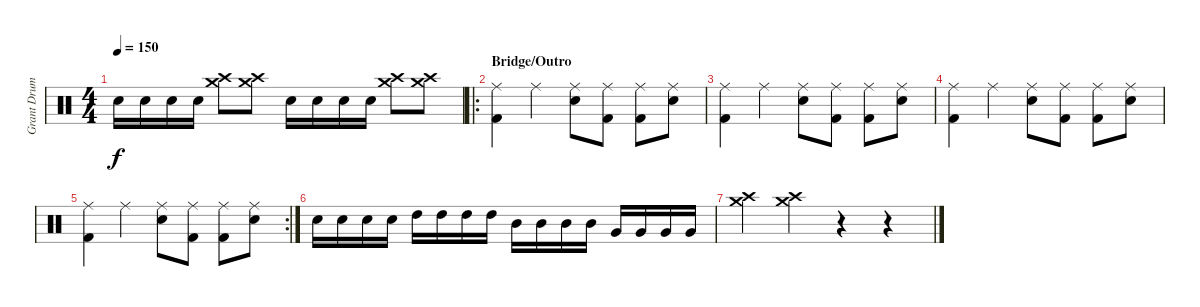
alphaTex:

\track ("Grant Drums" "Grant Drum") {instrument percussion}
\staff {score}
\articulation defaults
\ts (4 4)
\tempo 150
\clef neutral
\ks c "Snare (hit) 2".16{dy f} "Snare (hit) 2".16 "Snare (hit) 2".16 "Snare (hit) 2".16
("Crash medium (hit)" "Crash high (hit)").8 ("Crash medium (hit)" "Crash high (hit)").8 "Snare (hit) 2".16 "Snare (hit) 2".16 "Snare (hit) 2".16 "Snare (hit) 2".16 ("Crash medium (hit)" "Crash high (hit)").8 ("Crash medium (hit)" "Crash high (hit)").8 |
\ro
\section ("" "Bridge/Outro")
("Ride (middle)" "Kick (hit) 2").4 "Ride (middle)".4 ("Ride (middle)" "Snare (hit) 2").8 ("Ride (middle)" "Kick (hit) 2").8 ("Ride (middle)" "Kick (hit) 2").8 ("Ride (middle)" "Snare (hit) 2").8 |
("Ride (middle)" "Kick (hit) 2").4 "Ride (middle)".4 ("Ride (middle)" "Snare (hit) 2").8 ("Ride (middle)" "Kick (hit) 2").8 ("Ride (middle)" "Kick (hit) 2").8 ("Ride (middle)" "Snare (hit) 2").8 |
("Ride (middle)" "Kick (hit) 2").4 "Ride (middle)".4 ("Ride (middle)" "Snare (hit) 2").8 ("Ride (middle)" "Kick (hit) 2").8 ("Ride (middle)" "Kick (hit) 2").8 ("Ride (middle)" "Snare (hit) 2").8 |
\rc 2
("Ride (middle)" "Kick (hit) 2").4 "Ride (middle)".4 ("Ride (middle)" "Snare (hit) 2").8 ("Ride (middle)" "Kick (hit) 2").8 ("Ride (middle)" "Kick (hit) 2").8 ("Ride (middle)" "Snare (hit) 2").8 |
"Snare (hit) 2".16 "Snare (hit) 2".16 "Snare (hit) 2".16 "Snare (hit) 2".16 "High Tom (hit)".16 "High Tom (hit)".16 "High Tom (hit)".16 "High Tom (hit)".16 "Mid Tom (hit)".16 "Mid Tom (hit)".16 "Mid Tom (hit)".16 "Mid Tom (hit)".16 "Very Low Tom (hit)".16 "Very Low Tom (hit)".16 "Very Low Tom (hit)".16 "Very Low Tom (hit)".16 |
("Crash medium (hit)" "Crash high (hit)").4 ("Crash medium (hit)" "Crash high (hit)").4 r.4 r.4
